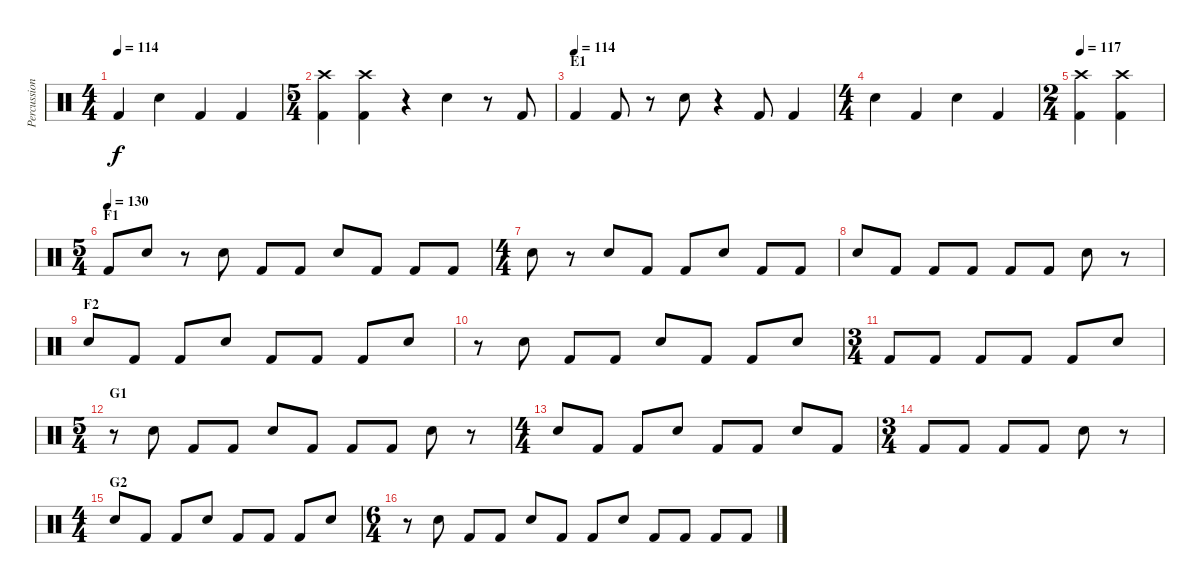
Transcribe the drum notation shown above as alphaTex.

\track ("Percussion" "Percussion") {instrument percussion}
\staff {score}
\articulation defaults
\ts (4 4)
\tempo 114
\clef neutral
\ks c "Kick (hit) 2".4{dy f} "Electric Snare (hit)".4 "Kick (hit) 2".4 "Kick (hit) 2".4
|
\ts (5 4)
("Kick (hit) 2" "Crash high (hit)").4 ("Kick (hit) 2" "Crash high (hit)").4 r.4 "Electric Snare (hit)".4 r.8 "Kick (hit) 2".8 |
\section ("" "E1")
\tempo (114)
"Kick (hit) 2".4 "Kick (hit) 2".8 r.8 "Electric Snare (hit)".8 r.4 "Kick (hit) 2".8 "Kick (hit) 2".4 |
\ts (4 4)
"Electric Snare (hit)".4 "Kick (hit) 2".4 "Electric Snare (hit)".4 "Kick (hit) 2".4 |
\ts (2 4)
\tempo 117
("Kick (hit) 2" "Crash high (hit)").4 ("Kick (hit) 2" "Crash high (hit)").4 |
\ts (5 4)
\section ("" "F1")
\tempo (130)
"Kick (hit) 2".8 "Electric Snare (hit)".8 r.8 "Electric Snare (hit)".8 "Kick (hit) 2".8 "Kick (hit) 2".8 "Electric Snare (hit)".8 "Kick (hit) 2".8 "Kick (hit) 2".8 "Kick (hit) 2".8 |
\ts (4 4)
"Electric Snare (hit)".8 r.8 "Electric Snare (hit)".8 "Kick (hit) 2".8 "Kick (hit) 2".8 "Electric Snare (hit)".8 "Kick (hit) 2".8 "Kick (hit) 2".8 |
"Electric Snare (hit)".8 "Kick (hit) 2".8 "Kick (hit) 2".8 "Kick (hit) 2".8 "Kick (hit) 2".8 "Kick (hit) 2".8 "Electric Snare (hit)".8 r.8 |
\section ("" "F2")
"Electric Snare (hit)".8 "Kick (hit) 2".8 "Kick (hit) 2".8 "Electric Snare (hit)".8 "Kick (hit) 2".8 "Kick (hit) 2".8 "Kick (hit) 2".8 "Electric Snare (hit)".8 |
r.8 "Electric Snare (hit)".8 "Kick (hit) 2".8 "Kick (hit) 2".8 "Electric Snare (hit)".8 "Kick (hit) 2".8 "Kick (hit) 2".8 "Electric Snare (hit)".8 |
\ts (3 4)
"Kick (hit) 2".8 "Kick (hit) 2".8 "Kick (hit) 2".8 "Kick (hit) 2".8 "Kick (hit) 2".8 "Electric Snare (hit)".8 |
\ts (5 4)
\section ("" "G1")
r.8 "Electric Snare (hit)".8 "Kick (hit) 2".8 "Kick (hit) 2".8 "Electric Snare (hit)".8 "Kick (hit) 2".8 "Kick (hit) 2".8 "Kick (hit) 2".8 "Electric Snare (hit)".8 r.8 |
\ts (4 4)
"Electric Snare (hit)".8 "Kick (hit) 2".8 "Kick (hit) 2".8 "Electric Snare (hit)".8 "Kick (hit) 2".8 "Kick (hit) 2".8 "Electric Snare (hit)".8 "Kick (hit) 2".8 |
\ts (3 4)
"Kick (hit) 2".8 "Kick (hit) 2".8 "Kick (hit) 2".8 "Kick (hit) 2".8 "Electric Snare (hit)".8 r.8 |
\ts (4 4)
\section ("" "G2")
"Electric Snare (hit)".8 "Kick (hit) 2".8 "Kick (hit) 2".8 "Electric Snare (hit)".8 "Kick (hit) 2".8 "Kick (hit) 2".8 "Kick (hit) 2".8 "Electric Snare (hit)".8 |
\ts (6 4)
r.8 "Electric Snare (hit)".8 "Kick (hit) 2".8 "Kick (hit) 2".8 "Electric Snare (hit)".8 "Kick (hit) 2".8 "Kick (hit) 2".8 "Electric Snare (hit)".8 "Kick (hit) 2".8 "Kick (hit) 2".8 "Kick (hit) 2".8 "Kick (hit) 2".8
